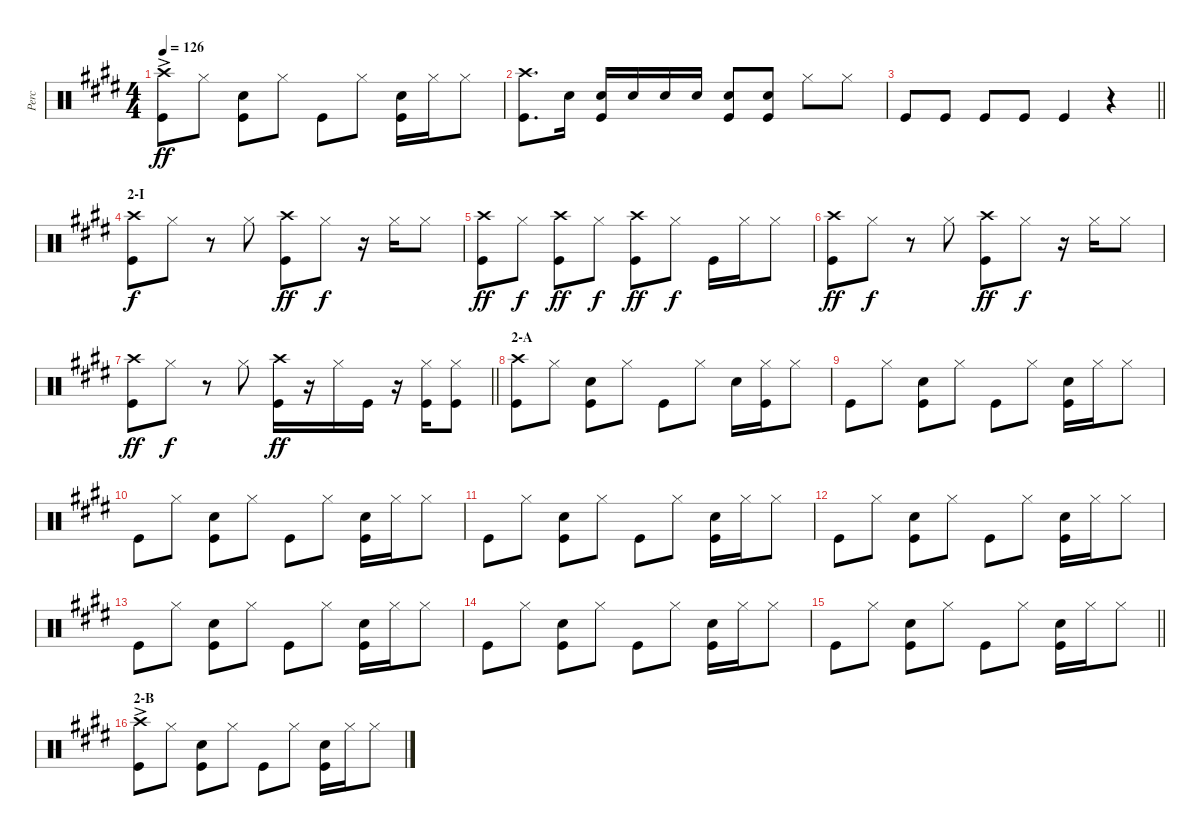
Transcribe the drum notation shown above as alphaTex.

\track ("Perc" "Perc") {instrument percussion}
\staff {score}
\articulation defaults
\ts (4 4)
\tempo 126
\clef neutral
\ks e
("Crash high (hit)"{ac} "Kick (hit)").8{dy ff} "Hi-Hat (closed)".8 ("Snare (hit) 2" "Kick (hit)").8 "Hi-Hat (closed)".8 "Kick (hit)".8 "Hi-Hat (closed)".8 ("Snare (hit) 2" "Kick (hit)").16 "Hi-Hat (closed)".16 "Hi-Hat (closed)".8 |
("Crash high (hit)" "Kick (hit)").8{d} "Snare (hit) 2".16 ("Snare (hit) 2" "Kick (hit)").16 "Snare (hit) 2".16 "Snare (hit) 2".16 "Snare (hit) 2".16 ("Snare (hit) 2" "Kick (hit)").8 ("Snare (hit) 2" "Kick (hit)").8 "Hi-Hat (closed)".8 "Hi-Hat (closed)".8 |
\barLineRight lightlight "Kick (hit)".8 "Kick (hit)".8 "Kick (hit)".8 "Kick (hit)".8 "Kick (hit)".4
r.4 |
\section ("" "2-I")
("Crash high (hit)" "Kick (hit)").8{dy f} "Hi-Hat (closed)".8 r.8 "Hi-Hat (closed)".8 ("Crash high (hit)" "Kick (hit)").8{dy ff} "Hi-Hat (closed)".8{dy f} r.16 "Hi-Hat (closed)".16 "Hi-Hat (closed)".8 |
("Crash high (hit)" "Kick (hit)").8{dy ff} "Hi-Hat (closed)".8{dy f} ("Crash high (hit)" "Kick (hit)").8{dy ff} "Hi-Hat (closed)".8{dy f} ("Crash high (hit)" "Kick (hit)").8{dy ff} "Hi-Hat (closed)".8{dy f} "Kick (hit)".16 "Hi-Hat (closed)".16 "Hi-Hat (closed)".8 |
("Crash high (hit)" "Kick (hit)").8{dy ff} "Hi-Hat (closed)".8{dy f} r.8 "Hi-Hat (closed)".8 ("Crash high (hit)" "Kick (hit)").8{dy ff} "Hi-Hat (closed)".8{dy f} r.16 "Hi-Hat (closed)".16 "Hi-Hat (closed)".8 |
\barLineRight lightlight
("Crash high (hit)" "Kick (hit)").8{dy ff} "Hi-Hat (closed)".8{dy f} r.8 "Hi-Hat (closed)".8 ("Crash high (hit)" "Kick (hit)").16{dy ff} r.16 "Hi-Hat (closed)".16 "Kick (hit)".16 r.16 ("Hi-Hat (closed)" "Kick (hit)").16 ("Hi-Hat (closed)" "Kick (hit)").8 |
\section ("" "2-A")
("Crash high (hit)" "Kick (hit)").8 "Hi-Hat (closed)".8 ("Snare (hit) 2" "Kick (hit)").8 "Hi-Hat (closed)".8 "Kick (hit)".8 "Hi-Hat (closed)".8 "Snare (hit) 2".16 ("Hi-Hat (closed)" "Kick (hit)").16 "Hi-Hat (closed)".8 |
"Kick (hit)".8 "Hi-Hat (closed)".8 ("Snare (hit) 2" "Kick (hit)").8 "Hi-Hat (closed)".8 "Kick (hit)".8 "Hi-Hat (closed)".8 ("Snare (hit) 2" "Kick (hit)").16 "Hi-Hat (closed)".16 "Hi-Hat (closed)".8 |
"Kick (hit)".8 "Hi-Hat (closed)".8 ("Snare (hit) 2" "Kick (hit)").8 "Hi-Hat (closed)".8 "Kick (hit)".8 "Hi-Hat (closed)".8 ("Snare (hit) 2" "Kick (hit)").16 "Hi-Hat (closed)".16 "Hi-Hat (closed)".8 |
"Kick (hit)".8 "Hi-Hat (closed)".8 ("Snare (hit) 2" "Kick (hit)").8 "Hi-Hat (closed)".8 "Kick (hit)".8 "Hi-Hat (closed)".8 ("Snare (hit) 2" "Kick (hit)").16 "Hi-Hat (closed)".16 "Hi-Hat (closed)".8 |
"Kick (hit)".8 "Hi-Hat (closed)".8 ("Snare (hit) 2" "Kick (hit)").8 "Hi-Hat (closed)".8 "Kick (hit)".8 "Hi-Hat (closed)".8 ("Snare (hit) 2" "Kick (hit)").16 "Hi-Hat (closed)".16 "Hi-Hat (closed)".8 |
"Kick (hit)".8 "Hi-Hat (closed)".8 ("Snare (hit) 2" "Kick (hit)").8 "Hi-Hat (closed)".8 "Kick (hit)".8 "Hi-Hat (closed)".8 ("Snare (hit) 2" "Kick (hit)").16 "Hi-Hat (closed)".16 "Hi-Hat (closed)".8 |
"Kick (hit)".8 "Hi-Hat (closed)".8 ("Snare (hit) 2" "Kick (hit)").8 "Hi-Hat (closed)".8 "Kick (hit)".8 "Hi-Hat (closed)".8 ("Snare (hit) 2" "Kick (hit)").16 "Hi-Hat (closed)".16 "Hi-Hat (closed)".8 |
\barLineRight lightlight "Kick (hit)".8 "Hi-Hat (closed)".8
("Snare (hit) 2" "Kick (hit)").8 "Hi-Hat (closed)".8 "Kick (hit)".8 "Hi-Hat (closed)".8 ("Snare (hit) 2" "Kick (hit)").16 "Hi-Hat (closed)".16 "Hi-Hat (closed)".8 |
\section ("" "2-B")
("Crash high (hit)"{ac} "Kick (hit)").8 "Hi-Hat (closed)".8 ("Snare (hit) 2" "Kick (hit)").8 "Hi-Hat (closed)".8 "Kick (hit)".8 "Hi-Hat (closed)".8 ("Snare (hit) 2" "Kick (hit)").16 "Hi-Hat (closed)".16 "Hi-Hat (closed)".8
